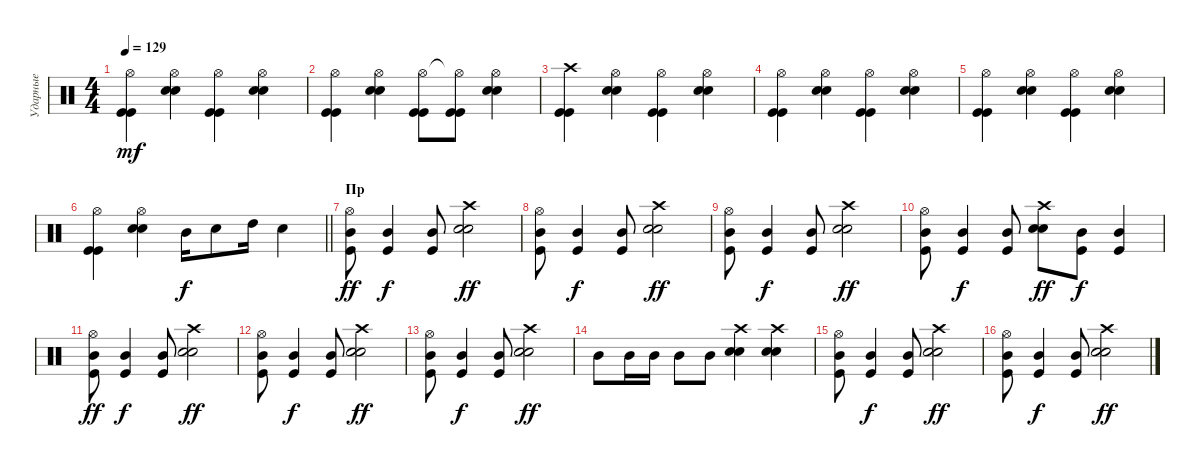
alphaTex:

\track ("Ударные" "Ударные") {instrument percussion}
\staff {score}
\articulation defaults
\ts (4 4)
\tempo 129
\clef neutral
\ks c
("Hi-Hat (open)" "Kick (hit)" "Kick (hit)").4{dy mf} ("Hi-Hat (open)" "Snare (hit) 2" "Snare (hit) 2").4 ("Hi-Hat (open)" "Kick (hit)" "Kick (hit)").4 ("Hi-Hat (open)" "Snare (hit) 2" "Snare (hit) 2").4 |
("Hi-Hat (open)" "Kick (hit)" "Kick (hit)").4 ("Hi-Hat (open)" "Snare (hit) 2" "Snare (hit) 2").4 ("Hi-Hat (open)" "Kick (hit)" "Kick (hit)").8 ("Hi-Hat (open)"{t} "Kick (hit)" "Kick (hit)").8 ("Hi-Hat (open)" "Snare (hit) 2" "Snare (hit) 2").4 |
("Crash high (hit)" "Kick (hit)" "Kick (hit)").4 ("Hi-Hat (open)" "Snare (hit) 2" "Snare (hit) 2").4 ("Hi-Hat (open)" "Kick (hit)" "Kick (hit)").4 ("Hi-Hat (open)" "Snare (hit) 2" "Snare (hit) 2").4 |
("Hi-Hat (open)" "Kick (hit)" "Kick (hit)").4 ("Hi-Hat (open)" "Snare (hit) 2" "Snare (hit) 2").4 ("Hi-Hat (open)" "Kick (hit)" "Kick (hit)").4 ("Hi-Hat (open)" "Snare (hit) 2" "Snare (hit) 2").4 |
("Hi-Hat (open)" "Kick (hit)" "Kick (hit)").4 ("Hi-Hat (open)" "Snare (hit) 2" "Snare (hit) 2").4 ("Hi-Hat (open)" "Kick (hit)" "Kick (hit)").4 ("Hi-Hat (open)" "Snare (hit) 2" "Snare (hit) 2").4 |
\barLineRight lightlight
("Hi-Hat (open)" "Kick (hit)" "Kick (hit)").4 ("Hi-Hat (open)" "Snare (hit) 2" "Snare (hit) 2").4 "Mid Tom (hit)".16{dy f} "Snare (hit) 2".8 "High Tom (hit)".16 "Snare (hit) 2".4 |
\section ("" "Пр")
("Kick (hit)" "Mid Tom (hit)" "Hi-Hat (open)").8{dy ff} ("Kick (hit)" "Mid Tom (hit)").4{dy f} ("Kick (hit)" "Mid Tom (hit)").8 ("Snare (hit) 2" "Snare (hit) 2" "Crash high (hit)").2{dy ff} |
("Kick (hit)" "Mid Tom (hit)" "Hi-Hat (open)").8 ("Kick (hit)" "Mid Tom (hit)").4{dy f} ("Kick (hit)" "Mid Tom (hit)").8 ("Snare (hit) 2" "Snare (hit) 2" "Crash high (hit)").2{dy ff} |
("Kick (hit)" "Mid Tom (hit)" "Hi-Hat (open)").8 ("Kick (hit)" "Mid Tom (hit)").4{dy f} ("Kick (hit)" "Mid Tom (hit)").8 ("Snare (hit) 2" "Snare (hit) 2" "Crash high (hit)").2{dy ff} |
("Kick (hit)" "Mid Tom (hit)" "Hi-Hat (open)").8 ("Kick (hit)" "Mid Tom (hit)").4{dy f} ("Kick (hit)" "Mid Tom (hit)").8 ("Snare (hit) 2" "Snare (hit) 2" "Crash high (hit)").8{dy ff} ("Kick (hit)" "Mid Tom (hit)").8{dy f} ("Kick (hit)" "Mid Tom (hit)").4 |
("Kick (hit)" "Mid Tom (hit)" "Hi-Hat (open)").8{dy ff} ("Kick (hit)" "Mid Tom (hit)").4{dy f} ("Kick (hit)" "Mid Tom (hit)").8 ("Snare (hit) 2" "Snare (hit) 2" "Crash high (hit)").2{dy ff} |
("Kick (hit)" "Mid Tom (hit)" "Hi-Hat (open)").8 ("Kick (hit)" "Mid Tom (hit)").4{dy f} ("Kick (hit)" "Mid Tom (hit)").8 ("Snare (hit) 2" "Snare (hit) 2" "Crash high (hit)").2{dy ff} |
("Kick (hit)" "Mid Tom (hit)" "Hi-Hat (open)").8 ("Kick (hit)" "Mid Tom (hit)").4{dy f} ("Kick (hit)" "Mid Tom (hit)").8 ("Snare (hit) 2" "Snare (hit) 2" "Crash high (hit)").2{dy ff} |
"Mid Tom (hit)".8 "Mid Tom (hit)".16 "Mid Tom (hit)".16 "Mid Tom (hit)".8 "Mid Tom (hit)".8 ("Snare (hit) 2" "Snare (hit) 2" "Crash high (hit)").4 ("Snare (hit) 2" "Snare (hit) 2" "Crash high (hit)").4 |
("Kick (hit)" "Mid Tom (hit)" "Hi-Hat (open)").8 ("Kick (hit)" "Mid Tom (hit)").4{dy f} ("Kick (hit)" "Mid Tom (hit)").8 ("Snare (hit) 2" "Snare (hit) 2" "Crash high (hit)").2{dy ff} |
("Kick (hit)" "Mid Tom (hit)" "Hi-Hat (open)").8 ("Kick (hit)" "Mid Tom (hit)").4{dy f} ("Kick (hit)" "Mid Tom (hit)").8 ("Snare (hit) 2" "Snare (hit) 2" "Crash high (hit)").2{dy ff}
